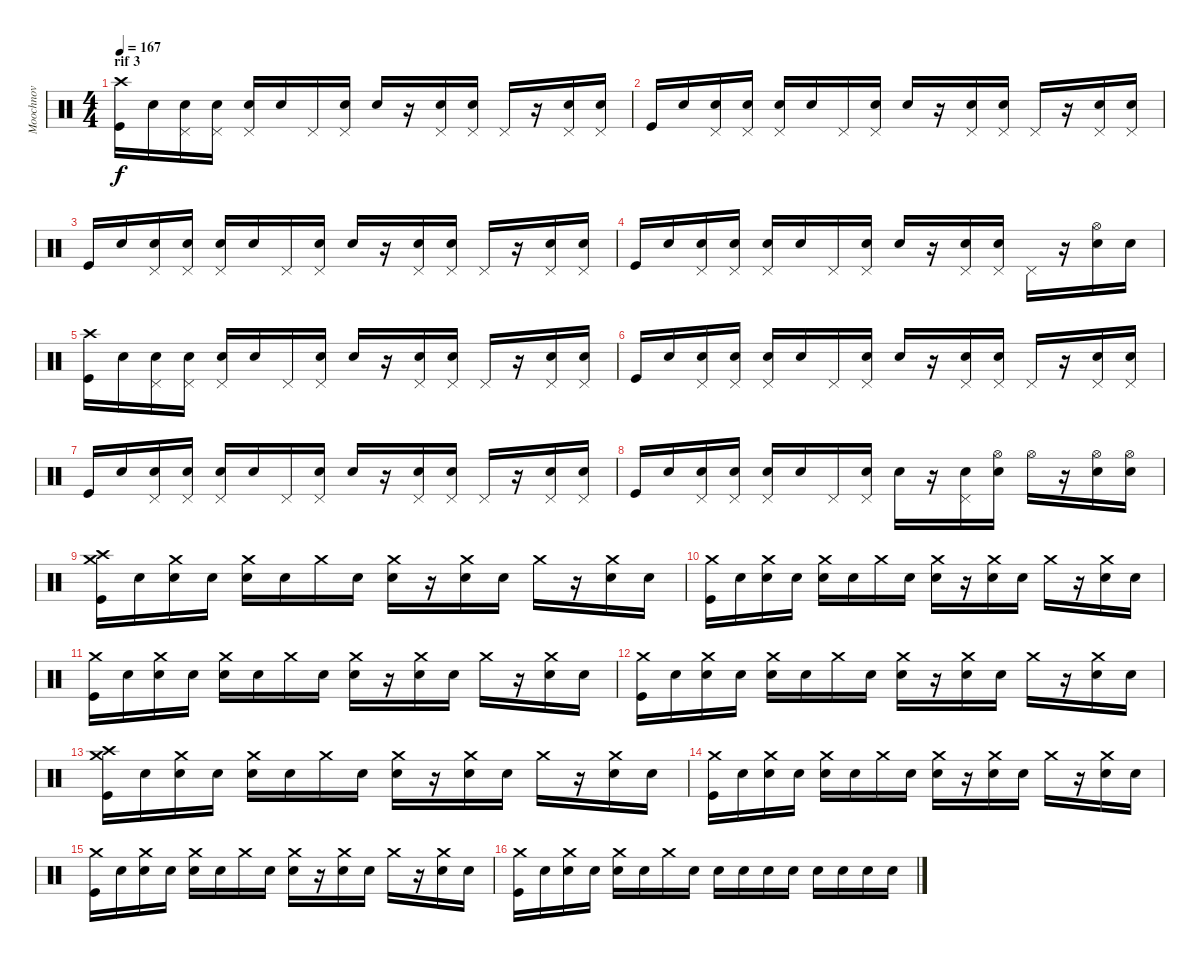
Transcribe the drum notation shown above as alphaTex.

\track ("Moochnov" "Moochnov") {instrument percussion}
\staff {score}
\articulation defaults
\ts (4 4)
\section ("" "rif 3")
\tempo 167
\clef neutral
\ks c
("Kick (hit)" "Crash high (hit)").16{dy f} "Snare (hit)"{x}.16 ("Snare (hit)"{x} "Pedal Hi-Hat (hit)").16 ("Snare (hit)"{x} "Pedal Hi-Hat (hit)").16 ("Snare (hit)"{x} "Pedal Hi-Hat (hit)").16 "Snare (hit)"{x}.16 "Pedal Hi-Hat (hit)".16 ("Snare (hit)"{x} "Pedal Hi-Hat (hit)").16 "Snare (hit) 2".16 r.16 ("Snare (hit)"{x} "Pedal Hi-Hat (hit)").16 ("Snare (hit)"{x} "Pedal Hi-Hat (hit)").16 "Pedal Hi-Hat (hit)".16 r.16 ("Snare (hit)"{x} "Pedal Hi-Hat (hit)").16 ("Snare (hit)"{x} "Pedal Hi-Hat (hit)").16 |
"Kick (hit)".16 "Snare (hit)"{x}.16 ("Snare (hit)"{x} "Pedal Hi-Hat (hit)").16 ("Snare (hit)"{x} "Pedal Hi-Hat (hit)").16 ("Snare (hit)"{x} "Pedal Hi-Hat (hit)").16 "Snare (hit)"{x}.16 "Pedal Hi-Hat (hit)".16 ("Snare (hit)"{x} "Pedal Hi-Hat (hit)").16 "Snare (hit) 2".16 r.16 ("Snare (hit)"{x} "Pedal Hi-Hat (hit)").16 ("Snare (hit)"{x} "Pedal Hi-Hat (hit)").16 "Pedal Hi-Hat (hit)".16 r.16 ("Snare (hit)"{x} "Pedal Hi-Hat (hit)").16 ("Snare (hit)"{x} "Pedal Hi-Hat (hit)").16 |
"Kick (hit)".16 "Snare (hit)"{x}.16 ("Snare (hit)"{x} "Pedal Hi-Hat (hit)").16 ("Snare (hit)"{x} "Pedal Hi-Hat (hit)").16 ("Snare (hit)"{x} "Pedal Hi-Hat (hit)").16 "Snare (hit)"{x}.16 "Pedal Hi-Hat (hit)".16 ("Snare (hit)"{x} "Pedal Hi-Hat (hit)").16 "Snare (hit) 2".16 r.16 ("Snare (hit)"{x} "Pedal Hi-Hat (hit)").16 ("Snare (hit)"{x} "Pedal Hi-Hat (hit)").16 "Pedal Hi-Hat (hit)".16 r.16 ("Snare (hit)"{x} "Pedal Hi-Hat (hit)").16 ("Snare (hit)"{x} "Pedal Hi-Hat (hit)").16 |
"Kick (hit)".16 "Snare (hit)"{x}.16 ("Snare (hit)"{x} "Pedal Hi-Hat (hit)").16 ("Snare (hit)"{x} "Pedal Hi-Hat (hit)").16 ("Snare (hit)"{x} "Pedal Hi-Hat (hit)").16 "Snare (hit)"{x}.16 "Pedal Hi-Hat (hit)".16 ("Snare (hit)"{x} "Pedal Hi-Hat (hit)").16 "Snare (hit) 2".16 r.16 ("Snare (hit)"{x} "Pedal Hi-Hat (hit)").16 ("Snare (hit)"{x} "Pedal Hi-Hat (hit)").16 "Pedal Hi-Hat (hit)".16 r.16 ("Snare (hit)"{x} "Hi-Hat (open)").16 "Snare (hit)"{x}.16 |
("Kick (hit)" "Crash high (hit)").16 "Snare (hit)"{x}.16 ("Snare (hit)"{x} "Pedal Hi-Hat (hit)").16 ("Snare (hit)"{x} "Pedal Hi-Hat (hit)").16 ("Snare (hit)"{x} "Pedal Hi-Hat (hit)").16 "Snare (hit)"{x}.16 "Pedal Hi-Hat (hit)".16 ("Snare (hit)"{x} "Pedal Hi-Hat (hit)").16 "Snare (hit) 2".16 r.16 ("Snare (hit)"{x} "Pedal Hi-Hat (hit)").16 ("Snare (hit)"{x} "Pedal Hi-Hat (hit)").16 "Pedal Hi-Hat (hit)".16 r.16 ("Snare (hit)"{x} "Pedal Hi-Hat (hit)").16 ("Snare (hit)"{x} "Pedal Hi-Hat (hit)").16 |
"Kick (hit)".16 "Snare (hit)"{x}.16 ("Snare (hit)"{x} "Pedal Hi-Hat (hit)").16 ("Snare (hit)"{x} "Pedal Hi-Hat (hit)").16 ("Snare (hit)"{x} "Pedal Hi-Hat (hit)").16 "Snare (hit)"{x}.16 "Pedal Hi-Hat (hit)".16 ("Snare (hit)"{x} "Pedal Hi-Hat (hit)").16 "Snare (hit) 2".16 r.16 ("Snare (hit)"{x} "Pedal Hi-Hat (hit)").16 ("Snare (hit)"{x} "Pedal Hi-Hat (hit)").16 "Pedal Hi-Hat (hit)".16 r.16 ("Snare (hit)"{x} "Pedal Hi-Hat (hit)").16 ("Snare (hit)"{x} "Pedal Hi-Hat (hit)").16 |
"Kick (hit)".16 "Snare (hit)"{x}.16 ("Snare (hit)"{x} "Pedal Hi-Hat (hit)").16 ("Snare (hit)"{x} "Pedal Hi-Hat (hit)").16 ("Snare (hit)"{x} "Pedal Hi-Hat (hit)").16 "Snare (hit)"{x}.16 "Pedal Hi-Hat (hit)".16 ("Snare (hit)"{x} "Pedal Hi-Hat (hit)").16 "Snare (hit) 2".16 r.16 ("Snare (hit)"{x} "Pedal Hi-Hat (hit)").16 ("Snare (hit)"{x} "Pedal Hi-Hat (hit)").16 "Pedal Hi-Hat (hit)".16 r.16 ("Snare (hit)"{x} "Pedal Hi-Hat (hit)").16 ("Snare (hit)"{x} "Pedal Hi-Hat (hit)").16 |
"Kick (hit)".16 "Snare (hit)"{x}.16 ("Snare (hit)"{x} "Pedal Hi-Hat (hit)").16 ("Snare (hit)"{x} "Pedal Hi-Hat (hit)").16 ("Snare (hit)"{x} "Pedal Hi-Hat (hit)").16 "Snare (hit)"{x}.16 "Pedal Hi-Hat (hit)".16 ("Snare (hit)"{x} "Pedal Hi-Hat (hit)").16 "Snare (hit) 2".16 r.16 ("Snare (hit)"{x} "Pedal Hi-Hat (hit)").16 ("Snare (hit)"{x} "Hi-Hat (open)").16 "Hi-Hat (open)".16 r.16 ("Snare (hit)"{x} "Hi-Hat (open)").16 ("Snare (hit)"{x} "Hi-Hat (open)").16 |
("Kick (hit)" "Crash medium (hit)" "Crash high (hit)").16 "Snare (hit)"{x}.16 ("Snare (hit)"{x} "Crash medium (hit)").16 "Snare (hit)"{x}.16 ("Snare (hit)"{x} "Crash medium (hit)").16 "Snare (hit)"{x}.16 "Crash medium (hit)".16 "Snare (hit)"{x}.16 ("Snare (hit) 2" "Crash medium (hit)").16 r.16 ("Snare (hit)"{x} "Crash medium (hit)").16 "Snare (hit)"{x}.16 "Crash medium (hit)".16 r.16 ("Snare (hit)"{x} "Crash medium (hit)").16 "Snare (hit)"{x}.16 |
("Kick (hit)" "Crash medium (hit)").16 "Snare (hit)"{x}.16 ("Snare (hit)"{x} "Crash medium (hit)").16 "Snare (hit)"{x}.16 ("Snare (hit)"{x} "Crash medium (hit)").16 "Snare (hit)"{x}.16 "Crash medium (hit)".16 "Snare (hit)"{x}.16 ("Snare (hit) 2" "Crash medium (hit)").16 r.16 ("Snare (hit)"{x} "Crash medium (hit)").16 "Snare (hit)"{x}.16 "Crash medium (hit)".16 r.16 ("Snare (hit)"{x} "Crash medium (hit)").16 "Snare (hit)"{x}.16 |
("Kick (hit)" "Crash medium (hit)").16 "Snare (hit)"{x}.16 ("Snare (hit)"{x} "Crash medium (hit)").16 "Snare (hit)"{x}.16 ("Snare (hit)"{x} "Crash medium (hit)").16 "Snare (hit)"{x}.16 "Crash medium (hit)".16 "Snare (hit)"{x}.16 ("Snare (hit) 2" "Crash medium (hit)").16 r.16 ("Snare (hit)"{x} "Crash medium (hit)").16 "Snare (hit)"{x}.16 "Crash medium (hit)".16 r.16 ("Snare (hit)"{x} "Crash medium (hit)").16 "Snare (hit)"{x}.16 |
("Kick (hit)" "Crash medium (hit)").16 "Snare (hit)"{x}.16 ("Snare (hit)"{x} "Crash medium (hit)").16 "Snare (hit)"{x}.16 ("Snare (hit)"{x} "Crash medium (hit)").16 "Snare (hit)"{x}.16 "Crash medium (hit)".16 "Snare (hit)"{x}.16 ("Snare (hit) 2" "Crash medium (hit)").16 r.16 ("Snare (hit)"{x} "Crash medium (hit)").16 "Snare (hit)"{x}.16 "Crash medium (hit)".16 r.16 ("Snare (hit)"{x} "Crash medium (hit)").16 "Snare (hit)"{x}.16 |
("Kick (hit)" "Crash medium (hit)" "Crash high (hit)").16 "Snare (hit)"{x}.16 ("Snare (hit)"{x} "Crash medium (hit)").16 "Snare (hit)"{x}.16 ("Snare (hit)"{x} "Crash medium (hit)").16 "Snare (hit)"{x}.16 "Crash medium (hit)".16 "Snare (hit)"{x}.16 ("Snare (hit) 2" "Crash medium (hit)").16 r.16 ("Snare (hit)"{x} "Crash medium (hit)").16 "Snare (hit)"{x}.16 "Crash medium (hit)".16 r.16 ("Snare (hit)"{x} "Crash medium (hit)").16 "Snare (hit)"{x}.16 |
("Kick (hit)" "Crash medium (hit)").16 "Snare (hit)"{x}.16 ("Snare (hit)"{x} "Crash medium (hit)").16 "Snare (hit)"{x}.16 ("Snare (hit)"{x} "Crash medium (hit)").16 "Snare (hit)"{x}.16 "Crash medium (hit)".16 "Snare (hit)"{x}.16 ("Snare (hit) 2" "Crash medium (hit)").16 r.16 ("Snare (hit)"{x} "Crash medium (hit)").16 "Snare (hit)"{x}.16 "Crash medium (hit)".16 r.16 ("Snare (hit)"{x} "Crash medium (hit)").16 "Snare (hit)"{x}.16 |
("Kick (hit)" "Crash medium (hit)").16 "Snare (hit)"{x}.16 ("Snare (hit)"{x} "Crash medium (hit)").16 "Snare (hit)"{x}.16 ("Snare (hit)"{x} "Crash medium (hit)").16 "Snare (hit)"{x}.16 "Crash medium (hit)".16 "Snare (hit)"{x}.16 ("Snare (hit) 2" "Crash medium (hit)").16 r.16 ("Snare (hit)"{x} "Crash medium (hit)").16 "Snare (hit)"{x}.16 "Crash medium (hit)".16 r.16 ("Snare (hit)"{x} "Crash medium (hit)").16 "Snare (hit)"{x}.16 |
("Kick (hit)" "Crash medium (hit)").16 "Snare (hit)"{x}.16 ("Snare (hit)"{x} "Crash medium (hit)").16 "Snare (hit)"{x}.16 ("Snare (hit)"{x} "Crash medium (hit)").16 "Snare (hit)"{x}.16 "Crash medium (hit)".16 "Snare (hit)"{x}.16 "Snare (hit) 2".16 "Snare (hit) 2".16 "Snare (hit) 2".16 "Snare (hit) 2".16 "Snare (hit) 2".16 "Snare (hit) 2".16 "Snare (hit) 2".16 "Snare (hit) 2".16
